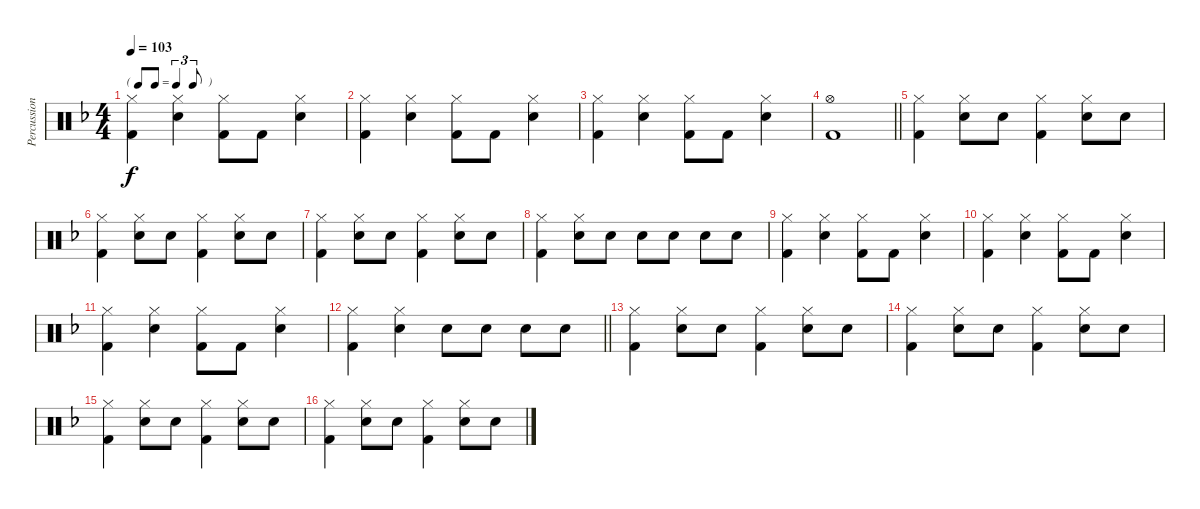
\track ("Percussion" "Percussion") {instrument percussion}
\staff {score}
\articulation defaults
\ts (4 4)
\tf triplet8th
\tempo 103
\clef neutral
\ks f
("Hi-Hat (closed)" "Kick (hit) 2").4{dy f} ("Hi-Hat (closed)" "Snare (hit) 2").4 ("Hi-Hat (closed)" "Kick (hit) 2").8 "Kick (hit) 2".8 ("Hi-Hat (closed)" "Snare (hit) 2").4 |
("Hi-Hat (closed)" "Kick (hit) 2").4 ("Hi-Hat (closed)" "Snare (hit) 2").4 ("Hi-Hat (closed)" "Kick (hit) 2").8 "Kick (hit) 2".8 ("Hi-Hat (closed)" "Snare (hit) 2").4 |
("Hi-Hat (closed)" "Kick (hit) 2").4 ("Hi-Hat (closed)" "Snare (hit) 2").4 ("Hi-Hat (closed)" "Kick (hit) 2").8 "Kick (hit) 2".8 ("Hi-Hat (closed)" "Snare (hit) 2").4 |
\barLineRight lightlight
("Hi-Hat (open)" "Kick (hit) 2").1 |
("Hi-Hat (closed)" "Kick (hit) 2").4 ("Hi-Hat (closed)" "Snare (hit) 2").8 "Snare (hit) 2".8 ("Hi-Hat (closed)" "Kick (hit) 2").4 ("Hi-Hat (closed)" "Snare (hit) 2").8 "Snare (hit) 2".8 |
("Hi-Hat (closed)" "Kick (hit) 2").4 ("Hi-Hat (closed)" "Snare (hit) 2").8 "Snare (hit) 2".8 ("Hi-Hat (closed)" "Kick (hit) 2").4 ("Hi-Hat (closed)" "Snare (hit) 2").8 "Snare (hit) 2".8 |
("Hi-Hat (closed)" "Kick (hit) 2").4 ("Hi-Hat (closed)" "Snare (hit) 2").8 "Snare (hit) 2".8 ("Hi-Hat (closed)" "Kick (hit) 2").4 ("Hi-Hat (closed)" "Snare (hit) 2").8 "Snare (hit) 2".8 |
("Hi-Hat (closed)" "Kick (hit) 2").4 ("Hi-Hat (closed)" "Snare (hit) 2").8 "Snare (hit) 2".8 "Snare (hit) 2".8 "Snare (hit) 2".8 "Snare (hit) 2".8 "Snare (hit) 2".8 |
("Hi-Hat (closed)" "Kick (hit) 2").4 ("Hi-Hat (closed)" "Snare (hit) 2").4 ("Hi-Hat (closed)" "Kick (hit) 2").8 "Kick (hit) 2".8 ("Hi-Hat (closed)" "Snare (hit) 2").4 |
("Hi-Hat (closed)" "Kick (hit) 2").4 ("Hi-Hat (closed)" "Snare (hit) 2").4 ("Hi-Hat (closed)" "Kick (hit) 2").8 "Kick (hit) 2".8 ("Hi-Hat (closed)" "Snare (hit) 2").4 |
("Hi-Hat (closed)" "Kick (hit) 2").4 ("Hi-Hat (closed)" "Snare (hit) 2").4 ("Hi-Hat (closed)" "Kick (hit) 2").8 "Kick (hit) 2".8 ("Hi-Hat (closed)" "Snare (hit) 2").4 |
\barLineRight lightlight
("Hi-Hat (closed)" "Kick (hit) 2").4 ("Hi-Hat (closed)" "Snare (hit) 2").4 "Snare (hit) 2".8 "Snare (hit) 2".8 "Snare (hit) 2".8 "Snare (hit) 2".8 |
("Hi-Hat (closed)" "Kick (hit) 2").4 ("Hi-Hat (closed)" "Snare (hit) 2").8 "Snare (hit) 2".8 ("Hi-Hat (closed)" "Kick (hit) 2").4 ("Hi-Hat (closed)" "Snare (hit) 2").8 "Snare (hit) 2".8 |
("Hi-Hat (closed)" "Kick (hit) 2").4 ("Hi-Hat (closed)" "Snare (hit) 2").8 "Snare (hit) 2".8 ("Hi-Hat (closed)" "Kick (hit) 2").4 ("Hi-Hat (closed)" "Snare (hit) 2").8 "Snare (hit) 2".8 |
("Hi-Hat (closed)" "Kick (hit) 2").4 ("Hi-Hat (closed)" "Snare (hit) 2").8 "Snare (hit) 2".8 ("Hi-Hat (closed)" "Kick (hit) 2").4 ("Hi-Hat (closed)" "Snare (hit) 2").8 "Snare (hit) 2".8 |
("Hi-Hat (closed)" "Kick (hit) 2").4 ("Hi-Hat (closed)" "Snare (hit) 2").8 "Snare (hit) 2".8 ("Hi-Hat (closed)" "Kick (hit) 2").4 ("Hi-Hat (closed)" "Snare (hit) 2").8 "Snare (hit) 2".8
